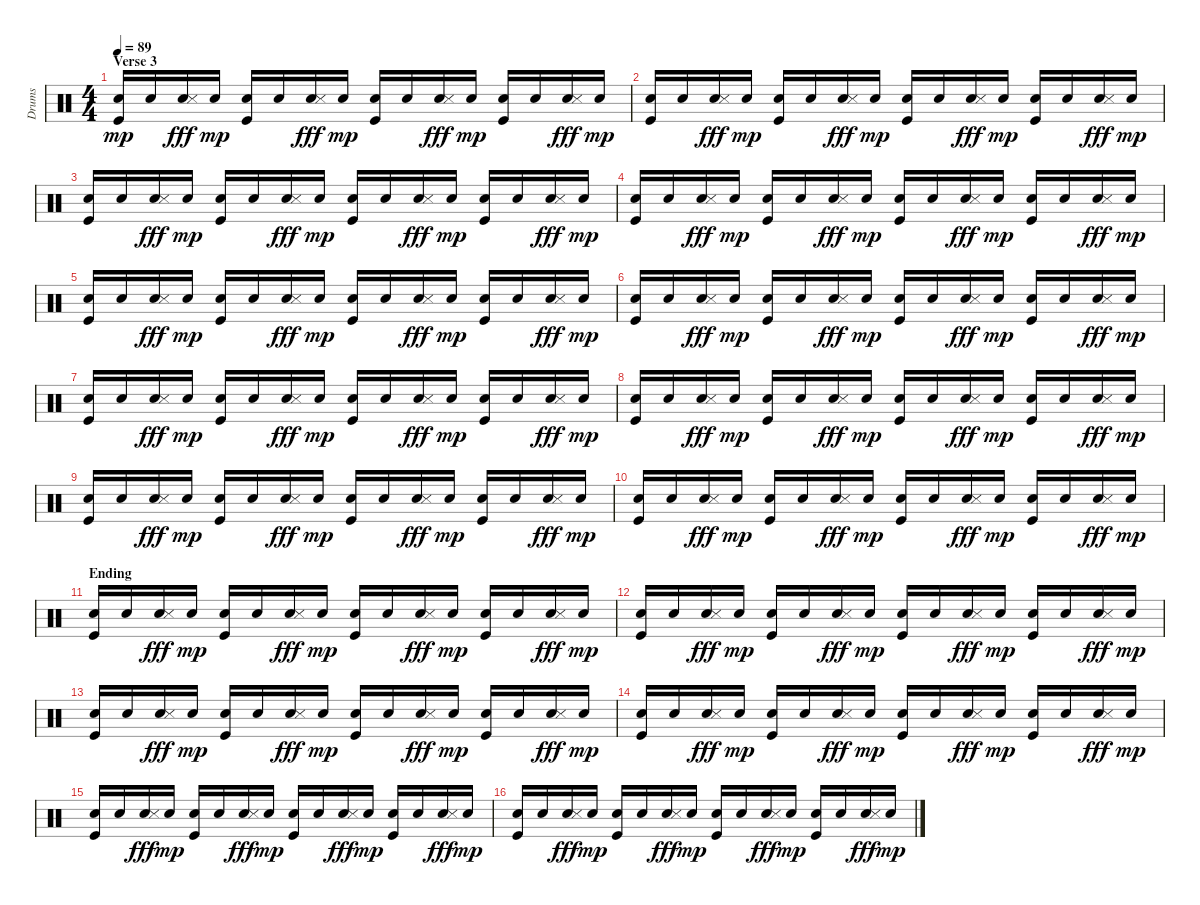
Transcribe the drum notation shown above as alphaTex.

\track ("Drums" "Drums") {instrument percussion}
\staff {score}
\articulation defaults
\ts (4 4)
\section ("" "Verse 3")
\tempo 89
\clef neutral
\ks c
("Snare (hit) 2" "Kick (hit)").16{dy mp} "Snare (hit) 2".16 ("Snare (hit) 2" "Snare (side stick) 3").16{dy fff} "Snare (hit) 2".16{dy mp} ("Snare (hit) 2" "Kick (hit)").16 "Snare (hit) 2".16 ("Snare (hit) 2" "Snare (side stick) 3").16{dy fff} "Snare (hit) 2".16{dy mp} ("Snare (hit) 2" "Kick (hit)").16 "Snare (hit) 2".16 ("Snare (hit) 2" "Snare (side stick) 3").16{dy fff} "Snare (hit) 2".16{dy mp} ("Snare (hit) 2" "Kick (hit)").16 "Snare (hit) 2".16 ("Snare (hit) 2" "Snare (side stick) 3").16{dy fff} "Snare (hit) 2".16{dy mp} |
("Snare (hit) 2" "Kick (hit)").16 "Snare (hit) 2".16 ("Snare (hit) 2" "Snare (side stick) 3").16{dy fff} "Snare (hit) 2".16{dy mp} ("Snare (hit) 2" "Kick (hit)").16 "Snare (hit) 2".16 ("Snare (hit) 2" "Snare (side stick) 3").16{dy fff} "Snare (hit) 2".16{dy mp} ("Snare (hit) 2" "Kick (hit)").16 "Snare (hit) 2".16 ("Snare (hit) 2" "Snare (side stick) 3").16{dy fff} "Snare (hit) 2".16{dy mp} ("Snare (hit) 2" "Kick (hit)").16 "Snare (hit) 2".16 ("Snare (hit) 2" "Snare (side stick) 3").16{dy fff} "Snare (hit) 2".16{dy mp} |
("Snare (hit) 2" "Kick (hit)").16 "Snare (hit) 2".16 ("Snare (hit) 2" "Snare (side stick) 3").16{dy fff} "Snare (hit) 2".16{dy mp} ("Snare (hit) 2" "Kick (hit)").16 "Snare (hit) 2".16 ("Snare (hit) 2" "Snare (side stick) 3").16{dy fff} "Snare (hit) 2".16{dy mp} ("Snare (hit) 2" "Kick (hit)").16 "Snare (hit) 2".16 ("Snare (hit) 2" "Snare (side stick) 3").16{dy fff} "Snare (hit) 2".16{dy mp} ("Snare (hit) 2" "Kick (hit)").16 "Snare (hit) 2".16 ("Snare (hit) 2" "Snare (side stick) 3").16{dy fff} "Snare (hit) 2".16{dy mp} |
("Snare (hit) 2" "Kick (hit)").16 "Snare (hit) 2".16 ("Snare (hit) 2" "Snare (side stick) 3").16{dy fff} "Snare (hit) 2".16{dy mp} ("Snare (hit) 2" "Kick (hit)").16 "Snare (hit) 2".16 ("Snare (hit) 2" "Snare (side stick) 3").16{dy fff} "Snare (hit) 2".16{dy mp} ("Snare (hit) 2" "Kick (hit)").16 "Snare (hit) 2".16 ("Snare (hit) 2" "Snare (side stick) 3").16{dy fff} "Snare (hit) 2".16{dy mp} ("Snare (hit) 2" "Kick (hit)").16 "Snare (hit) 2".16 ("Snare (hit) 2" "Snare (side stick) 3").16{dy fff} "Snare (hit) 2".16{dy mp} |
("Snare (hit) 2" "Kick (hit)").16 "Snare (hit) 2".16 ("Snare (hit) 2" "Snare (side stick) 3").16{dy fff} "Snare (hit) 2".16{dy mp} ("Snare (hit) 2" "Kick (hit)").16 "Snare (hit) 2".16 ("Snare (hit) 2" "Snare (side stick) 3").16{dy fff} "Snare (hit) 2".16{dy mp} ("Snare (hit) 2" "Kick (hit)").16 "Snare (hit) 2".16 ("Snare (hit) 2" "Snare (side stick) 3").16{dy fff} "Snare (hit) 2".16{dy mp} ("Snare (hit) 2" "Kick (hit)").16 "Snare (hit) 2".16 ("Snare (hit) 2" "Snare (side stick) 3").16{dy fff} "Snare (hit) 2".16{dy mp} |
("Snare (hit) 2" "Kick (hit)").16 "Snare (hit) 2".16 ("Snare (hit) 2" "Snare (side stick) 3").16{dy fff} "Snare (hit) 2".16{dy mp} ("Snare (hit) 2" "Kick (hit)").16 "Snare (hit) 2".16 ("Snare (hit) 2" "Snare (side stick) 3").16{dy fff} "Snare (hit) 2".16{dy mp} ("Snare (hit) 2" "Kick (hit)").16 "Snare (hit) 2".16 ("Snare (hit) 2" "Snare (side stick) 3").16{dy fff} "Snare (hit) 2".16{dy mp} ("Snare (hit) 2" "Kick (hit)").16 "Snare (hit) 2".16 ("Snare (hit) 2" "Snare (side stick) 3").16{dy fff} "Snare (hit) 2".16{dy mp} |
("Snare (hit) 2" "Kick (hit)").16 "Snare (hit) 2".16 ("Snare (hit) 2" "Snare (side stick) 3").16{dy fff} "Snare (hit) 2".16{dy mp} ("Snare (hit) 2" "Kick (hit)").16 "Snare (hit) 2".16 ("Snare (hit) 2" "Snare (side stick) 3").16{dy fff} "Snare (hit) 2".16{dy mp} ("Snare (hit) 2" "Kick (hit)").16 "Snare (hit) 2".16 ("Snare (hit) 2" "Snare (side stick) 3").16{dy fff} "Snare (hit) 2".16{dy mp} ("Snare (hit) 2" "Kick (hit)").16 "Snare (hit) 2".16 ("Snare (hit) 2" "Snare (side stick) 3").16{dy fff} "Snare (hit) 2".16{dy mp} |
("Snare (hit) 2" "Kick (hit)").16 "Snare (hit) 2".16 ("Snare (hit) 2" "Snare (side stick) 3").16{dy fff} "Snare (hit) 2".16{dy mp} ("Snare (hit) 2" "Kick (hit)").16 "Snare (hit) 2".16 ("Snare (hit) 2" "Snare (side stick) 3").16{dy fff} "Snare (hit) 2".16{dy mp} ("Snare (hit) 2" "Kick (hit)").16 "Snare (hit) 2".16 ("Snare (hit) 2" "Snare (side stick) 3").16{dy fff} "Snare (hit) 2".16{dy mp} ("Snare (hit) 2" "Kick (hit)").16 "Snare (hit) 2".16 ("Snare (hit) 2" "Snare (side stick) 3").16{dy fff} "Snare (hit) 2".16{dy mp} |
("Snare (hit) 2" "Kick (hit)").16 "Snare (hit) 2".16 ("Snare (hit) 2" "Snare (side stick) 3").16{dy fff} "Snare (hit) 2".16{dy mp} ("Snare (hit) 2" "Kick (hit)").16 "Snare (hit) 2".16 ("Snare (hit) 2" "Snare (side stick) 3").16{dy fff} "Snare (hit) 2".16{dy mp} ("Snare (hit) 2" "Kick (hit)").16 "Snare (hit) 2".16 ("Snare (hit) 2" "Snare (side stick) 3").16{dy fff} "Snare (hit) 2".16{dy mp} ("Snare (hit) 2" "Kick (hit)").16 "Snare (hit) 2".16 ("Snare (hit) 2" "Snare (side stick) 3").16{dy fff} "Snare (hit) 2".16{dy mp} |
("Snare (hit) 2" "Kick (hit)").16 "Snare (hit) 2".16 ("Snare (hit) 2" "Snare (side stick) 3").16{dy fff} "Snare (hit) 2".16{dy mp} ("Snare (hit) 2" "Kick (hit)").16 "Snare (hit) 2".16 ("Snare (hit) 2" "Snare (side stick) 3").16{dy fff} "Snare (hit) 2".16{dy mp} ("Snare (hit) 2" "Kick (hit)").16 "Snare (hit) 2".16 ("Snare (hit) 2" "Snare (side stick) 3").16{dy fff} "Snare (hit) 2".16{dy mp} ("Snare (hit) 2" "Kick (hit)").16 "Snare (hit) 2".16 ("Snare (hit) 2" "Snare (side stick) 3").16{dy fff} "Snare (hit) 2".16{dy mp} |
\section ("" "Ending")
("Snare (hit) 2" "Kick (hit)").16 "Snare (hit) 2".16 ("Snare (hit) 2" "Snare (side stick) 3").16{dy fff} "Snare (hit) 2".16{dy mp} ("Snare (hit) 2" "Kick (hit)").16 "Snare (hit) 2".16 ("Snare (hit) 2" "Snare (side stick) 3").16{dy fff} "Snare (hit) 2".16{dy mp} ("Snare (hit) 2" "Kick (hit)").16 "Snare (hit) 2".16 ("Snare (hit) 2" "Snare (side stick) 3").16{dy fff} "Snare (hit) 2".16{dy mp} ("Snare (hit) 2" "Kick (hit)").16 "Snare (hit) 2".16 ("Snare (hit) 2" "Snare (side stick) 3").16{dy fff} "Snare (hit) 2".16{dy mp} |
("Snare (hit) 2" "Kick (hit)").16 "Snare (hit) 2".16 ("Snare (hit) 2" "Snare (side stick) 3").16{dy fff} "Snare (hit) 2".16{dy mp} ("Snare (hit) 2" "Kick (hit)").16 "Snare (hit) 2".16 ("Snare (hit) 2" "Snare (side stick) 3").16{dy fff} "Snare (hit) 2".16{dy mp} ("Snare (hit) 2" "Kick (hit)").16 "Snare (hit) 2".16 ("Snare (hit) 2" "Snare (side stick) 3").16{dy fff} "Snare (hit) 2".16{dy mp} ("Snare (hit) 2" "Kick (hit)").16 "Snare (hit) 2".16 ("Snare (hit) 2" "Snare (side stick) 3").16{dy fff} "Snare (hit) 2".16{dy mp} |
("Snare (hit) 2" "Kick (hit)").16 "Snare (hit) 2".16 ("Snare (hit) 2" "Snare (side stick) 3").16{dy fff} "Snare (hit) 2".16{dy mp} ("Snare (hit) 2" "Kick (hit)").16 "Snare (hit) 2".16 ("Snare (hit) 2" "Snare (side stick) 3").16{dy fff} "Snare (hit) 2".16{dy mp} ("Snare (hit) 2" "Kick (hit)").16 "Snare (hit) 2".16 ("Snare (hit) 2" "Snare (side stick) 3").16{dy fff} "Snare (hit) 2".16{dy mp} ("Snare (hit) 2" "Kick (hit)").16 "Snare (hit) 2".16 ("Snare (hit) 2" "Snare (side stick) 3").16{dy fff} "Snare (hit) 2".16{dy mp} |
("Snare (hit) 2" "Kick (hit)").16 "Snare (hit) 2".16 ("Snare (hit) 2" "Snare (side stick) 3").16{dy fff} "Snare (hit) 2".16{dy mp} ("Snare (hit) 2" "Kick (hit)").16 "Snare (hit) 2".16 ("Snare (hit) 2" "Snare (side stick) 3").16{dy fff} "Snare (hit) 2".16{dy mp} ("Snare (hit) 2" "Kick (hit)").16 "Snare (hit) 2".16 ("Snare (hit) 2" "Snare (side stick) 3").16{dy fff} "Snare (hit) 2".16{dy mp} ("Snare (hit) 2" "Kick (hit)").16 "Snare (hit) 2".16 ("Snare (hit) 2" "Snare (side stick) 3").16{dy fff} "Snare (hit) 2".16{dy mp} |
("Snare (hit) 2" "Kick (hit)").16 "Snare (hit) 2".16 ("Snare (hit) 2" "Snare (side stick) 3").16{dy fff} "Snare (hit) 2".16{dy mp} ("Snare (hit) 2" "Kick (hit)").16 "Snare (hit) 2".16 ("Snare (hit) 2" "Snare (side stick) 3").16{dy fff} "Snare (hit) 2".16{dy mp} ("Snare (hit) 2" "Kick (hit)").16 "Snare (hit) 2".16 ("Snare (hit) 2" "Snare (side stick) 3").16{dy fff} "Snare (hit) 2".16{dy mp} ("Snare (hit) 2" "Kick (hit)").16 "Snare (hit) 2".16 ("Snare (hit) 2" "Snare (side stick) 3").16{dy fff} "Snare (hit) 2".16{dy mp} |
("Snare (hit) 2" "Kick (hit)").16 "Snare (hit) 2".16 ("Snare (hit) 2" "Snare (side stick) 3").16{dy fff} "Snare (hit) 2".16{dy mp} ("Snare (hit) 2" "Kick (hit)").16 "Snare (hit) 2".16 ("Snare (hit) 2" "Snare (side stick) 3").16{dy fff} "Snare (hit) 2".16{dy mp} ("Snare (hit) 2" "Kick (hit)").16 "Snare (hit) 2".16 ("Snare (hit) 2" "Snare (side stick) 3").16{dy fff} "Snare (hit) 2".16{dy mp} ("Snare (hit) 2" "Kick (hit)").16 "Snare (hit) 2".16 ("Snare (hit) 2" "Snare (side stick) 3").16{dy fff} "Snare (hit) 2".16{dy mp}
